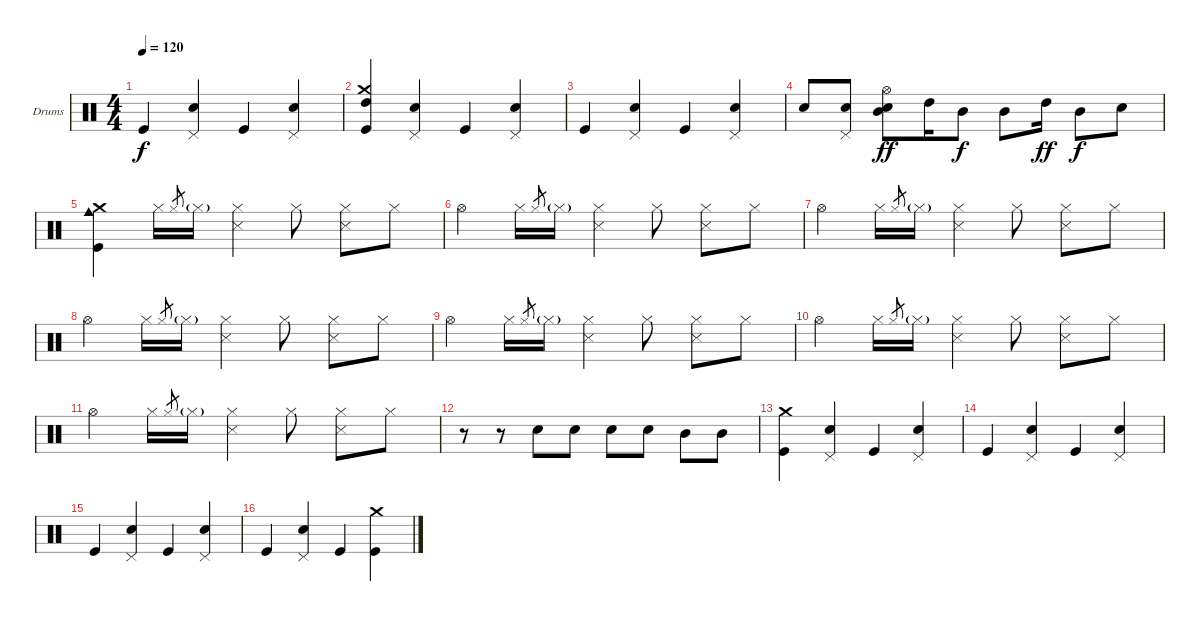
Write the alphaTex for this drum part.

\defaultSystemsLayout 4
\bracketExtendMode groupsimilarinstruments
\firstSystemTrackNameOrientation horizontal
\otherSystemsTrackNameOrientation horizontal
\track ("Drumkit" "Drums") {instrument percussion}
\staff {score}
\articulation defaults
\ts (4 4)
\tempo 120
\clef neutral
\ks c "Kick (hit)".4{dy f}
("Pedal Hi-Hat (hit)" "Snare (hit) 2").4 "Kick (hit)".4 ("Pedal Hi-Hat (hit)" "Snare (hit) 2").4 |
("Kick (hit)" "Crash medium (hit)" "High Tom (hit)").4 ("Pedal Hi-Hat (hit)" "Snare (hit) 2").4 "Kick (hit)".4 ("Pedal Hi-Hat (hit)" "Snare (hit) 2").4 |
"Kick (hit)".4 ("Pedal Hi-Hat (hit)" "Snare (hit) 2").4 "Kick (hit)".4 ("Pedal Hi-Hat (hit)" "Snare (hit) 2").4 |
"Snare (hit) 2".8 ("Snare (hit) 2" "Pedal Hi-Hat (hit)").8 ("Snare (hit) 2" "Hi-Hat (open)" "Mid Tom (hit)").8{dy ff} "High Tom (hit)".16 "Mid Tom (hit)".8{dy f} "Mid Tom (hit)".8 "High Tom (hit)".16{dy ff} "Mid Tom (hit)".8{dy f} "Snare (hit) 2".8 |
("Crash medium (hit)" "Kick (hit)" "Cowbell medium (hit)").4 "Hi-Hat (closed)".16 "Hi-Hat (closed)".8{gr} "Hi-Hat (closed)"{g}.16 ("Hi-Hat (closed)" "Snare (side stick) 3").4 "Hi-Hat (closed)".8 ("Hi-Hat (closed)" "Snare (side stick) 3").8 "Hi-Hat (closed)".8 |
"Hi-Hat (open)".4 "Hi-Hat (closed)".16 "Hi-Hat (closed)".8{gr} "Hi-Hat (closed)"{g}.16 ("Hi-Hat (closed)" "Snare (side stick) 3").4 "Hi-Hat (closed)".8 ("Hi-Hat (closed)" "Snare (side stick) 3").8 "Hi-Hat (closed)".8 |
"Hi-Hat (open)".4 "Hi-Hat (closed)".16 "Hi-Hat (closed)".8{gr} "Hi-Hat (closed)"{g}.16 ("Hi-Hat (closed)" "Snare (side stick) 3").4 "Hi-Hat (closed)".8 ("Hi-Hat (closed)" "Snare (side stick) 3").8 "Hi-Hat (closed)".8 |
"Hi-Hat (open)".4 "Hi-Hat (closed)".16 "Hi-Hat (closed)".8{gr} "Hi-Hat (closed)"{g}.16 ("Hi-Hat (closed)" "Snare (side stick) 3").4 "Hi-Hat (closed)".8 ("Hi-Hat (closed)" "Snare (side stick) 3").8 "Hi-Hat (closed)".8 |
"Hi-Hat (open)".4 "Hi-Hat (closed)".16 "Hi-Hat (closed)".8{gr} "Hi-Hat (closed)"{g}.16 ("Hi-Hat (closed)" "Snare (side stick) 3").4 "Hi-Hat (closed)".8 ("Hi-Hat (closed)" "Snare (side stick) 3").8 "Hi-Hat (closed)".8 |
"Hi-Hat (open)".4 "Hi-Hat (closed)".16 "Hi-Hat (closed)".8{gr} "Hi-Hat (closed)"{g}.16 ("Hi-Hat (closed)" "Snare (side stick) 3").4 "Hi-Hat (closed)".8 ("Hi-Hat (closed)" "Snare (side stick) 3").8 "Hi-Hat (closed)".8 |
"Hi-Hat (open)".4 "Hi-Hat (closed)".16 "Hi-Hat (closed)".8{gr} "Hi-Hat (closed)"{g}.16 ("Hi-Hat (closed)" "Snare (side stick) 3").4 "Hi-Hat (closed)".8 ("Hi-Hat (closed)" "Snare (side stick) 3").8 "Hi-Hat (closed)".8 |
r.8 r.8 "Snare (hit) 2".8 "Snare (hit) 2".8 "Snare (hit) 2".8 "Snare (hit) 2".8 "Mid Tom (hit)".8 "Mid Tom (hit)".8 |
("Kick (hit)" "Crash medium (hit)").4 ("Pedal Hi-Hat (hit)" "Snare (hit) 2").4 "Kick (hit)".4 ("Pedal Hi-Hat (hit)" "Snare (hit) 2").4 |
"Kick (hit)".4 ("Pedal Hi-Hat (hit)" "Snare (hit) 2").4 "Kick (hit)".4 ("Pedal Hi-Hat (hit)" "Snare (hit) 2").4 |
"Kick (hit)".4 ("Pedal Hi-Hat (hit)" "Snare (hit) 2").4 "Kick (hit)".4 ("Pedal Hi-Hat (hit)" "Snare (hit) 2").4 |
"Kick (hit)".4 ("Pedal Hi-Hat (hit)" "Snare (hit) 2").4 "Kick (hit)".4 ("Kick (hit)" "Crash medium (hit)").4
